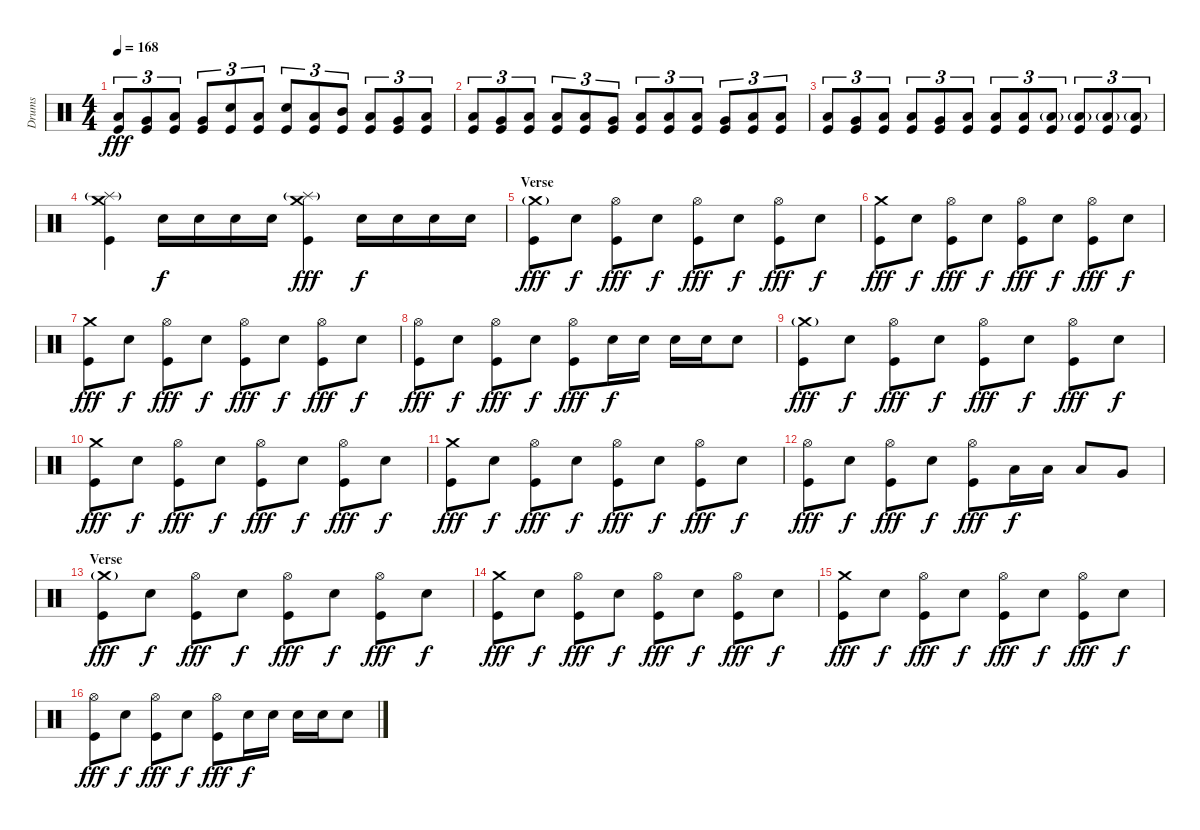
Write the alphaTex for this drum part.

\track ("Drums" "Drums") {instrument percussion}
\staff {score}
\articulation defaults
\ts (4 4)
\tempo 168
\clef neutral
\ks c
("Low Tom (hit)" "Kick (hit)").8{tu (3 2) dy fff} ("Very Low Tom (hit)" "Kick (hit)").8{tu (3 2)} ("Low Tom (hit)" "Kick (hit)").8{tu (3 2)} ("Very Low Tom (hit)" "Kick (hit)").8{tu (3 2)} ("Snare (hit) 2" "Kick (hit)").8{tu (3 2)} ("Low Tom (hit)" "Kick (hit)").8{tu (3 2)} ("Snare (hit) 2" "Kick (hit)").8{tu (3 2)} ("Low Tom (hit)" "Kick (hit)").8{tu (3 2)} ("Mid Tom (hit)" "Kick (hit)").8{tu (3 2)} ("Low Tom (hit)" "Kick (hit)").8{tu (3 2)} ("Very Low Tom (hit)" "Kick (hit)").8{tu (3 2)} ("Low Floor Tom (hit)" "Kick (hit)").8{tu (3 2)} |
("Low Tom (hit)" "Kick (hit)").8{tu (3 2)} ("Very Low Tom (hit)" "Kick (hit)").8{tu (3 2)} ("Low Floor Tom (hit)" "Kick (hit)").8{tu (3 2)} ("Low Floor Tom (hit)" "Kick (hit)").8{tu (3 2)} ("Low Tom (hit)" "Kick (hit)").8{tu (3 2)} ("Very Low Tom (hit)" "Kick (hit)").8{tu (3 2)} ("Low Floor Tom (hit)" "Kick (hit)").8{tu (3 2)} ("Low Floor Tom (hit)" "Kick (hit)").8{tu (3 2)} ("Low Tom (hit)" "Kick (hit)").8{tu (3 2)} ("Very Low Tom (hit)" "Kick (hit)").8{tu (3 2)} ("Low Floor Tom (hit)" "Kick (hit)").8{tu (3 2)} ("Low Floor Tom (hit)" "Kick (hit)").8{tu (3 2)} |
("Low Tom (hit)" "Kick (hit)").8{tu (3 2)} ("Very Low Tom (hit)" "Kick (hit)").8{tu (3 2)} ("Low Floor Tom (hit)" "Kick (hit)").8{tu (3 2)} ("Low Floor Tom (hit)" "Kick (hit)").8{tu (3 2)} ("Very Low Tom (hit)" "Kick (hit)").8{tu (3 2)} ("Low Floor Tom (hit)" "Kick (hit)").8{tu (3 2)} ("Low Floor Tom (hit)" "Kick (hit)").8{tu (3 2)} ("Low Floor Tom (hit)" "Kick (hit)").8{tu (3 2)} ("Low Floor Tom (hit)"{g} "Kick (hit)").8{tu (3 2)} ("Low Floor Tom (hit)"{g} "Kick (hit)").8{tu (3 2)} ("Low Floor Tom (hit)"{g} "Kick (hit)").8{tu (3 2)} ("Low Floor Tom (hit)"{g} "Kick (hit)").8{tu (3 2)} |
("Crash medium (hit)" "Splash (hit)"{g} "Kick (hit)").4 "Snare (hit) 2".16{dy f} "Snare (hit) 2".16 "Snare (hit) 2".16 "Snare (hit) 2".16 ("Crash medium (hit)" "Splash (hit)"{g} "Kick (hit)").4{dy fff} "Snare (hit) 2".16{dy f} "Snare (hit) 2".16 "Snare (hit) 2".16 "Snare (hit) 2".16 |
\section ("" "Verse")
("Crash medium (hit)"{g} "Kick (hit)").8{dy fff} "Snare (hit) 2".8{dy f} ("Hi-Hat (open)" "Kick (hit)").8{dy fff} "Snare (hit) 2".8{dy f} ("Hi-Hat (open)" "Kick (hit)").8{dy fff} "Snare (hit) 2".8{dy f} ("Hi-Hat (open)" "Kick (hit)").8{dy fff} "Snare (hit) 2".8{dy f} |
("Crash medium (hit)" "Kick (hit)").8{dy fff} "Snare (hit) 2".8{dy f} ("Hi-Hat (open)" "Kick (hit)").8{dy fff} "Snare (hit) 2".8{dy f} ("Hi-Hat (open)" "Kick (hit)").8{dy fff} "Snare (hit) 2".8{dy f} ("Hi-Hat (open)" "Kick (hit)").8{dy fff} "Snare (hit) 2".8{dy f} |
("Crash medium (hit)" "Kick (hit)").8{dy fff} "Snare (hit) 2".8{dy f} ("Hi-Hat (open)" "Kick (hit)").8{dy fff} "Snare (hit) 2".8{dy f} ("Hi-Hat (open)" "Kick (hit)").8{dy fff} "Snare (hit) 2".8{dy f} ("Hi-Hat (open)" "Kick (hit)").8{dy fff} "Snare (hit) 2".8{dy f} |
("Hi-Hat (open)" "Kick (hit)").8{dy fff} "Snare (hit) 2".8{dy f} ("Hi-Hat (open)" "Kick (hit)").8{dy fff} "Snare (hit) 2".8{dy f} ("Hi-Hat (open)" "Kick (hit)").8{dy fff} "Snare (hit) 2".16{dy f} "Snare (hit) 2".16 "Snare (hit) 2".16 "Snare (hit) 2".16 "Snare (hit) 2".8 |
("Crash medium (hit)"{g} "Kick (hit)").8{dy fff} "Snare (hit) 2".8{dy f} ("Hi-Hat (open)" "Kick (hit)").8{dy fff} "Snare (hit) 2".8{dy f} ("Hi-Hat (open)" "Kick (hit)").8{dy fff} "Snare (hit) 2".8{dy f} ("Hi-Hat (open)" "Kick (hit)").8{dy fff} "Snare (hit) 2".8{dy f} |
("Crash medium (hit)" "Kick (hit)").8{dy fff} "Snare (hit) 2".8{dy f} ("Hi-Hat (open)" "Kick (hit)").8{dy fff} "Snare (hit) 2".8{dy f} ("Hi-Hat (open)" "Kick (hit)").8{dy fff} "Snare (hit) 2".8{dy f} ("Hi-Hat (open)" "Kick (hit)").8{dy fff} "Snare (hit) 2".8{dy f} |
("Crash medium (hit)" "Kick (hit)").8{dy fff} "Snare (hit) 2".8{dy f} ("Hi-Hat (open)" "Kick (hit)").8{dy fff} "Snare (hit) 2".8{dy f} ("Hi-Hat (open)" "Kick (hit)").8{dy fff} "Snare (hit) 2".8{dy f} ("Hi-Hat (open)" "Kick (hit)").8{dy fff} "Snare (hit) 2".8{dy f} |
("Hi-Hat (open)" "Kick (hit)").8{dy fff} "Snare (hit) 2".8{dy f} ("Hi-Hat (open)" "Kick (hit)").8{dy fff} "Snare (hit) 2".8{dy f} ("Hi-Hat (open)" "Kick (hit)").8{dy fff} "Low Tom (hit)".16{dy f} "Low Tom (hit)".16 "Low Tom (hit)".8 "Very Low Tom (hit)".8 |
\section ("" "Verse")
("Crash medium (hit)"{g} "Kick (hit)").8{dy fff} "Snare (hit) 2".8{dy f} ("Hi-Hat (open)" "Kick (hit)").8{dy fff} "Snare (hit) 2".8{dy f} ("Hi-Hat (open)" "Kick (hit)").8{dy fff} "Snare (hit) 2".8{dy f} ("Hi-Hat (open)" "Kick (hit)").8{dy fff} "Snare (hit) 2".8{dy f} |
("Crash medium (hit)" "Kick (hit)").8{dy fff} "Snare (hit) 2".8{dy f} ("Hi-Hat (open)" "Kick (hit)").8{dy fff} "Snare (hit) 2".8{dy f} ("Hi-Hat (open)" "Kick (hit)").8{dy fff} "Snare (hit) 2".8{dy f} ("Hi-Hat (open)" "Kick (hit)").8{dy fff} "Snare (hit) 2".8{dy f} |
("Crash medium (hit)" "Kick (hit)").8{dy fff} "Snare (hit) 2".8{dy f} ("Hi-Hat (open)" "Kick (hit)").8{dy fff} "Snare (hit) 2".8{dy f} ("Hi-Hat (open)" "Kick (hit)").8{dy fff} "Snare (hit) 2".8{dy f} ("Hi-Hat (open)" "Kick (hit)").8{dy fff} "Snare (hit) 2".8{dy f} |
("Hi-Hat (open)" "Kick (hit)").8{dy fff} "Snare (hit) 2".8{dy f} ("Hi-Hat (open)" "Kick (hit)").8{dy fff} "Snare (hit) 2".8{dy f} ("Hi-Hat (open)" "Kick (hit)").8{dy fff} "Snare (hit) 2".16{dy f} "Snare (hit) 2".16 "Snare (hit) 2".16 "Snare (hit) 2".16 "Snare (hit) 2".8
